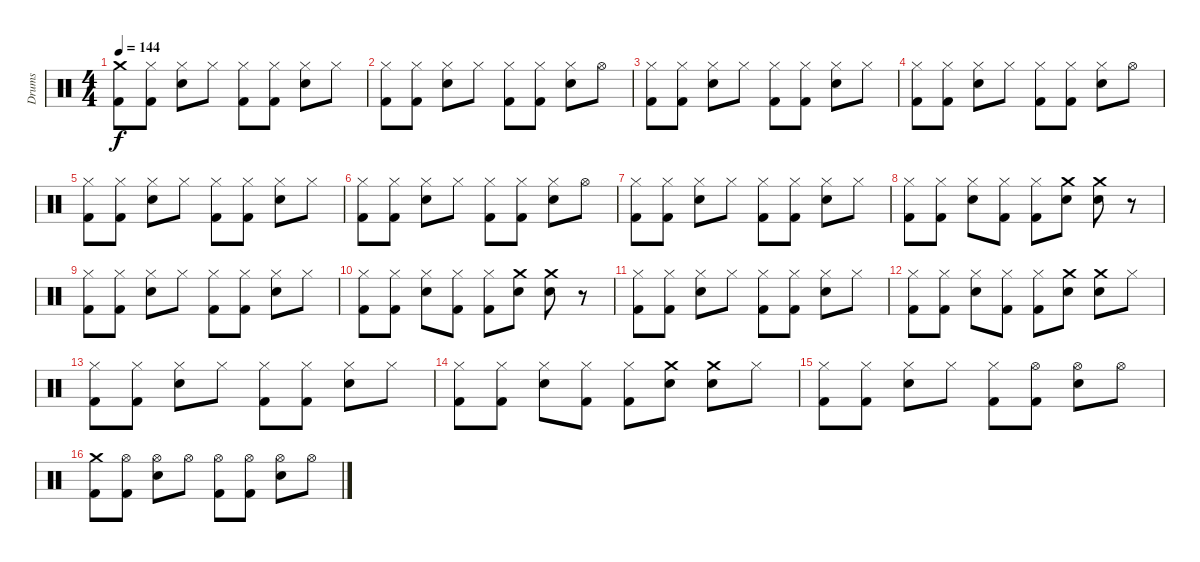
\track ("Drums" "Drums") {instrument percussion}
\staff {score}
\articulation defaults
\ts (4 4)
\tempo 144
\clef neutral
\ks c
("Crash medium (hit)" "Kick (hit) 2").8{dy f} ("Hi-Hat (closed)" "Kick (hit) 2").8 ("Hi-Hat (closed)" "Electric Snare (hit)").8 "Hi-Hat (closed)".8 ("Hi-Hat (closed)" "Kick (hit) 2").8 ("Hi-Hat (closed)" "Kick (hit) 2").8 ("Hi-Hat (closed)" "Electric Snare (hit)").8 "Hi-Hat (closed)".8 |
("Hi-Hat (closed)" "Kick (hit) 2").8 ("Hi-Hat (closed)" "Kick (hit) 2").8 ("Hi-Hat (closed)" "Electric Snare (hit)").8 "Hi-Hat (closed)".8 ("Hi-Hat (closed)" "Kick (hit) 2").8 ("Hi-Hat (closed)" "Kick (hit) 2").8 ("Hi-Hat (closed)" "Electric Snare (hit)").8 "Hi-Hat (open)".8 |
("Hi-Hat (closed)" "Kick (hit) 2").8 ("Hi-Hat (closed)" "Kick (hit) 2").8 ("Hi-Hat (closed)" "Electric Snare (hit)").8 "Hi-Hat (closed)".8 ("Hi-Hat (closed)" "Kick (hit) 2").8 ("Hi-Hat (closed)" "Kick (hit) 2").8 ("Hi-Hat (closed)" "Electric Snare (hit)").8 "Hi-Hat (closed)".8 |
("Hi-Hat (closed)" "Kick (hit) 2").8 ("Hi-Hat (closed)" "Kick (hit) 2").8 ("Hi-Hat (closed)" "Electric Snare (hit)").8 "Hi-Hat (closed)".8 ("Hi-Hat (closed)" "Kick (hit) 2").8 ("Hi-Hat (closed)" "Kick (hit) 2").8 ("Hi-Hat (closed)" "Electric Snare (hit)").8 "Hi-Hat (open)".8 |
("Hi-Hat (closed)" "Kick (hit) 2").8 ("Hi-Hat (closed)" "Kick (hit) 2").8 ("Hi-Hat (closed)" "Electric Snare (hit)").8 "Hi-Hat (closed)".8 ("Hi-Hat (closed)" "Kick (hit) 2").8 ("Hi-Hat (closed)" "Kick (hit) 2").8 ("Hi-Hat (closed)" "Electric Snare (hit)").8 "Hi-Hat (closed)".8 |
("Hi-Hat (closed)" "Kick (hit) 2").8 ("Hi-Hat (closed)" "Kick (hit) 2").8 ("Hi-Hat (closed)" "Electric Snare (hit)").8 "Hi-Hat (closed)".8 ("Hi-Hat (closed)" "Kick (hit) 2").8 ("Hi-Hat (closed)" "Kick (hit) 2").8 ("Hi-Hat (closed)" "Electric Snare (hit)").8 "Hi-Hat (open)".8 |
("Hi-Hat (closed)" "Kick (hit) 2").8 ("Hi-Hat (closed)" "Kick (hit) 2").8 ("Hi-Hat (closed)" "Electric Snare (hit)").8 "Hi-Hat (closed)".8 ("Hi-Hat (closed)" "Kick (hit) 2").8 ("Hi-Hat (closed)" "Kick (hit) 2").8 ("Hi-Hat (closed)" "Electric Snare (hit)").8 "Hi-Hat (closed)".8 |
("Hi-Hat (closed)" "Kick (hit) 2").8 ("Hi-Hat (closed)" "Kick (hit) 2").8 ("Hi-Hat (closed)" "Electric Snare (hit)").8 ("Hi-Hat (closed)" "Kick (hit) 2").8 ("Hi-Hat (closed)" "Kick (hit) 2").8 ("Crash medium (hit)" "Electric Snare (hit)").8 ("Crash medium (hit)" "Electric Snare (hit)").8 r.8 |
("Hi-Hat (closed)" "Kick (hit) 2").8 ("Hi-Hat (closed)" "Kick (hit) 2").8 ("Hi-Hat (closed)" "Electric Snare (hit)").8 "Hi-Hat (closed)".8 ("Hi-Hat (closed)" "Kick (hit) 2").8 ("Hi-Hat (closed)" "Kick (hit) 2").8 ("Hi-Hat (closed)" "Electric Snare (hit)").8 "Hi-Hat (closed)".8 |
("Hi-Hat (closed)" "Kick (hit) 2").8 ("Hi-Hat (closed)" "Kick (hit) 2").8 ("Hi-Hat (closed)" "Electric Snare (hit)").8 ("Hi-Hat (closed)" "Kick (hit) 2").8 ("Hi-Hat (closed)" "Kick (hit) 2").8 ("Crash medium (hit)" "Electric Snare (hit)").8 ("Crash medium (hit)" "Electric Snare (hit)").8 r.8 |
("Hi-Hat (closed)" "Kick (hit) 2").8 ("Hi-Hat (closed)" "Kick (hit) 2").8 ("Hi-Hat (closed)" "Electric Snare (hit)").8 "Hi-Hat (closed)".8 ("Hi-Hat (closed)" "Kick (hit) 2").8 ("Hi-Hat (closed)" "Kick (hit) 2").8 ("Hi-Hat (closed)" "Electric Snare (hit)").8 "Hi-Hat (closed)".8 |
("Hi-Hat (closed)" "Kick (hit) 2").8 ("Hi-Hat (closed)" "Kick (hit) 2").8 ("Hi-Hat (closed)" "Electric Snare (hit)").8 ("Hi-Hat (closed)" "Kick (hit) 2").8 ("Hi-Hat (closed)" "Kick (hit) 2").8 ("Crash medium (hit)" "Electric Snare (hit)").8 ("Crash medium (hit)" "Electric Snare (hit)").8 "Hi-Hat (closed)".8 |
("Hi-Hat (closed)" "Kick (hit) 2").8 ("Hi-Hat (closed)" "Kick (hit) 2").8 ("Hi-Hat (closed)" "Electric Snare (hit)").8 "Hi-Hat (closed)".8 ("Hi-Hat (closed)" "Kick (hit) 2").8 ("Hi-Hat (closed)" "Kick (hit) 2").8 ("Hi-Hat (closed)" "Electric Snare (hit)").8 "Hi-Hat (closed)".8 |
("Hi-Hat (closed)" "Kick (hit) 2").8 ("Hi-Hat (closed)" "Kick (hit) 2").8 ("Hi-Hat (closed)" "Electric Snare (hit)").8 ("Hi-Hat (closed)" "Kick (hit) 2").8 ("Hi-Hat (closed)" "Kick (hit) 2").8 ("Crash medium (hit)" "Electric Snare (hit)").8 ("Crash medium (hit)" "Electric Snare (hit)").8 "Hi-Hat (closed)".8 |
("Hi-Hat (closed)" "Kick (hit) 2").8 ("Hi-Hat (closed)" "Kick (hit) 2").8 ("Hi-Hat (closed)" "Electric Snare (hit)").8 "Hi-Hat (closed)".8 ("Hi-Hat (closed)" "Kick (hit) 2").8 ("Hi-Hat (open)" "Kick (hit) 2").8 ("Hi-Hat (open)" "Electric Snare (hit)").8 "Hi-Hat (open)".8 |
("Crash medium (hit)" "Kick (hit) 2").8 ("Hi-Hat (open)" "Kick (hit) 2").8 ("Hi-Hat (open)" "Electric Snare (hit)").8 "Hi-Hat (open)".8 ("Hi-Hat (open)" "Kick (hit) 2").8 ("Hi-Hat (open)" "Kick (hit) 2").8 ("Hi-Hat (open)" "Electric Snare (hit)").8 "Hi-Hat (open)".8
